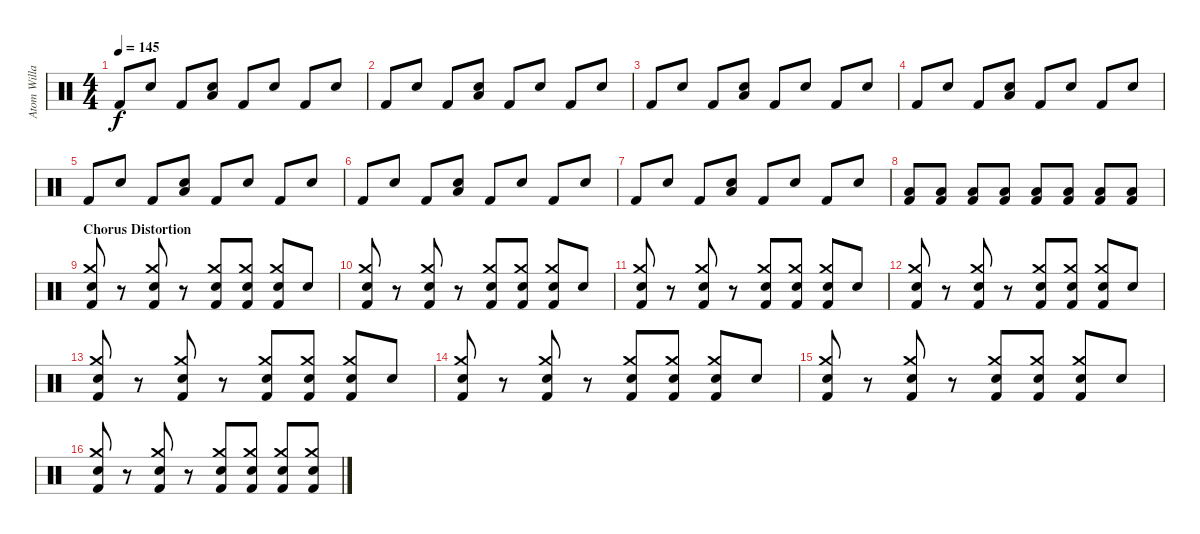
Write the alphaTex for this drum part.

\track ("Atom Willard (Drums)" "Atom Willa") {instrument percussion}
\staff {score}
\articulation defaults
\ts (4 4)
\tempo 145
\clef neutral
\ks c "Kick (hit) 2".8{dy f} "Snare (hit)".8 "Kick (hit) 2".8
("Snare (hit)" "Low Tom (hit)").8 "Kick (hit) 2".8 "Snare (hit)".8 "Kick (hit) 2".8 "Snare (hit)".8 |
"Kick (hit) 2".8 "Snare (hit)".8 "Kick (hit) 2".8 ("Snare (hit)" "Low Tom (hit)").8 "Kick (hit) 2".8 "Snare (hit)".8 "Kick (hit) 2".8 "Snare (hit)".8 |
"Kick (hit) 2".8 "Snare (hit)".8 "Kick (hit) 2".8 ("Snare (hit)" "Low Tom (hit)").8 "Kick (hit) 2".8 "Snare (hit)".8 "Kick (hit) 2".8 "Snare (hit)".8 |
"Kick (hit) 2".8 "Snare (hit)".8 "Kick (hit) 2".8 ("Snare (hit)" "Low Tom (hit)").8 "Kick (hit) 2".8 "Snare (hit)".8 "Kick (hit) 2".8 "Snare (hit)".8 |
"Kick (hit) 2".8 "Snare (hit)".8 "Kick (hit) 2".8 ("Snare (hit)" "Low Tom (hit)").8 "Kick (hit) 2".8 "Snare (hit)".8 "Kick (hit) 2".8 "Snare (hit)".8 |
"Kick (hit) 2".8 "Snare (hit)".8 "Kick (hit) 2".8 ("Snare (hit)" "Low Tom (hit)").8 "Kick (hit) 2".8 "Snare (hit)".8 "Kick (hit) 2".8 "Snare (hit)".8 |
"Kick (hit) 2".8 "Snare (hit)".8 "Kick (hit) 2".8 ("Snare (hit)" "Low Tom (hit)").8 "Kick (hit) 2".8 "Snare (hit)".8 "Kick (hit) 2".8 "Snare (hit)".8 |
("Kick (hit) 2" "Low Tom (hit)").8 ("Kick (hit) 2" "Low Tom (hit)").8 ("Kick (hit) 2" "Low Tom (hit)").8 ("Kick (hit) 2" "Low Tom (hit)").8 ("Kick (hit) 2" "Low Tom (hit)").8 ("Kick (hit) 2" "Low Tom (hit)").8 ("Kick (hit) 2" "Low Tom (hit)").8 ("Kick (hit) 2" "Low Tom (hit)").8 |
\section ("" "Chorus Distortion")
("Crash medium (hit)" "Electric Snare (hit)" "Kick (hit) 2").8 r.8 ("Crash medium (hit)" "Electric Snare (hit)" "Kick (hit) 2").8 r.8 ("Crash medium (hit)" "Electric Snare (hit)" "Kick (hit) 2").8 ("Crash medium (hit)" "Electric Snare (hit)" "Kick (hit) 2").8 ("Crash medium (hit)" "Electric Snare (hit)" "Kick (hit) 2").8 "Snare (hit)".8 |
("Crash medium (hit)" "Electric Snare (hit)" "Kick (hit) 2").8 r.8 ("Crash medium (hit)" "Electric Snare (hit)" "Kick (hit) 2").8 r.8 ("Crash medium (hit)" "Electric Snare (hit)" "Kick (hit) 2").8 ("Crash medium (hit)" "Electric Snare (hit)" "Kick (hit) 2").8 ("Crash medium (hit)" "Electric Snare (hit)" "Kick (hit) 2").8 "Snare (hit)".8 |
("Crash medium (hit)" "Electric Snare (hit)" "Kick (hit) 2").8 r.8 ("Crash medium (hit)" "Electric Snare (hit)" "Kick (hit) 2").8 r.8 ("Crash medium (hit)" "Electric Snare (hit)" "Kick (hit) 2").8 ("Crash medium (hit)" "Electric Snare (hit)" "Kick (hit) 2").8 ("Crash medium (hit)" "Electric Snare (hit)" "Kick (hit) 2").8 "Snare (hit)".8 |
("Crash medium (hit)" "Electric Snare (hit)" "Kick (hit) 2").8 r.8 ("Crash medium (hit)" "Electric Snare (hit)" "Kick (hit) 2").8 r.8 ("Crash medium (hit)" "Electric Snare (hit)" "Kick (hit) 2").8 ("Crash medium (hit)" "Electric Snare (hit)" "Kick (hit) 2").8 ("Crash medium (hit)" "Electric Snare (hit)" "Kick (hit) 2").8 "Snare (hit)".8 |
("Crash medium (hit)" "Electric Snare (hit)" "Kick (hit) 2").8 r.8 ("Crash medium (hit)" "Electric Snare (hit)" "Kick (hit) 2").8 r.8 ("Crash medium (hit)" "Electric Snare (hit)" "Kick (hit) 2").8 ("Crash medium (hit)" "Electric Snare (hit)" "Kick (hit) 2").8 ("Crash medium (hit)" "Electric Snare (hit)" "Kick (hit) 2").8 "Snare (hit)".8 |
("Crash medium (hit)" "Electric Snare (hit)" "Kick (hit) 2").8 r.8 ("Crash medium (hit)" "Electric Snare (hit)" "Kick (hit) 2").8 r.8 ("Crash medium (hit)" "Electric Snare (hit)" "Kick (hit) 2").8 ("Crash medium (hit)" "Electric Snare (hit)" "Kick (hit) 2").8 ("Crash medium (hit)" "Electric Snare (hit)" "Kick (hit) 2").8 "Snare (hit)".8 |
("Crash medium (hit)" "Electric Snare (hit)" "Kick (hit) 2").8 r.8 ("Crash medium (hit)" "Electric Snare (hit)" "Kick (hit) 2").8 r.8 ("Crash medium (hit)" "Electric Snare (hit)" "Kick (hit) 2").8 ("Crash medium (hit)" "Electric Snare (hit)" "Kick (hit) 2").8 ("Crash medium (hit)" "Electric Snare (hit)" "Kick (hit) 2").8 "Snare (hit)".8 |
("Crash medium (hit)" "Electric Snare (hit)" "Kick (hit) 2").8 r.8 ("Crash medium (hit)" "Electric Snare (hit)" "Kick (hit) 2").8 r.8 ("Crash medium (hit)" "Electric Snare (hit)" "Kick (hit) 2").8 ("Crash medium (hit)" "Electric Snare (hit)" "Kick (hit) 2").8 ("Crash medium (hit)" "Electric Snare (hit)" "Kick (hit) 2").8 ("Crash medium (hit)" "Electric Snare (hit)" "Kick (hit) 2").8
